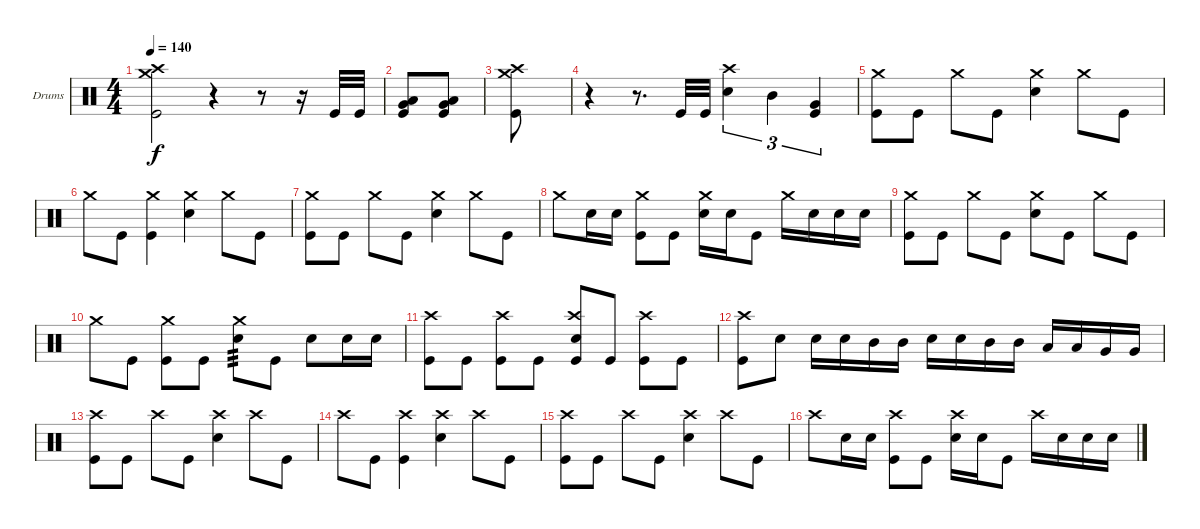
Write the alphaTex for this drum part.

\bracketExtendMode groupsimilarinstruments
\firstSystemTrackNameOrientation horizontal
\otherSystemsTrackNameOrientation horizontal
\track ("Drumkit" "Drums") {instrument percussion}
\staff {score}
\articulation defaults
\ts (4 4)
\tempo 140
\clef neutral
\ks c
("Kick (hit)" "Crash medium (hit)" "Crash high (hit)").2{dy f} r.4 r.8 r.16 "Kick (hit)".32 "Kick (hit)".32 |
("Very Low Tom (hit)" "Low Tom (hit)" "Kick (hit)").8 ("Very Low Tom (hit)" "Low Tom (hit)" "Kick (hit)").8 |
("Kick (hit)" "Crash medium (hit)" "Crash high (hit)").8 |
r.4 r.8{d} "Kick (hit)".32 "Kick (hit)".32 ("Snare (hit) 2" "Crash high (hit)").4{tu (3 2)} "Mid Tom (hit)".4{tu (3 2)} ("Very Low Tom (hit)" "Kick (hit)").4{tu (3 2)} |
("Crash medium (hit)" "Kick (hit)").8 "Kick (hit)".8 "Crash medium (hit)".8 "Kick (hit)".8 ("Snare (hit) 2" "Crash medium (hit)").4 "Crash medium (hit)".8 "Kick (hit)".8 |
"Crash medium (hit)".8 "Kick (hit)".8 ("Kick (hit)" "Crash medium (hit)").4 ("Snare (hit) 2" "Crash medium (hit)").4 "Crash medium (hit)".8 "Kick (hit)".8 |
("Crash medium (hit)" "Kick (hit)").8 "Kick (hit)".8 "Crash medium (hit)".8 "Kick (hit)".8 ("Snare (hit) 2" "Crash medium (hit)").4 "Crash medium (hit)".8 "Kick (hit)".8 |
"Crash medium (hit)".8 "Snare (hit) 2".16 "Snare (hit) 2".16 ("Kick (hit)" "Crash medium (hit)").8 "Kick (hit)".8 ("Snare (hit) 2" "Crash medium (hit)").16 "Snare (hit) 2".16 "Kick (hit)".8 "Crash medium (hit)".16 "Snare (hit) 2".16 "Snare (hit) 2".16 "Snare (hit) 2".16 |
("Crash medium (hit)" "Kick (hit)").8 "Kick (hit)".8 "Crash medium (hit)".8 "Kick (hit)".8 ("Snare (hit) 2" "Crash medium (hit)").8 "Kick (hit)".8 "Crash medium (hit)".8 "Kick (hit)".8 |
"Crash medium (hit)".8 "Kick (hit)".8 ("Crash medium (hit)" "Kick (hit)").8 "Kick (hit)".8 ("Snare (hit) 2" "Crash medium (hit)").8{tp 3} "Kick (hit)".8 "Snare (hit) 2".8 "Snare (hit) 2".16 "Snare (hit) 2".16 |
("Kick (hit)" "Crash high (hit)").8 "Kick (hit)".8 ("Kick (hit)" "Crash high (hit)").8 "Kick (hit)".8 ("Kick (hit)" "Crash high (hit)" "Snare (hit) 2").8 "Kick (hit)".8 ("Kick (hit)" "Crash high (hit)").8 "Kick (hit)".8 |
("Kick (hit)" "Crash high (hit)").8 "Snare (hit) 2".8 "Snare (hit) 2".16 "Snare (hit) 2".16 "Mid Tom (hit)".16 "Mid Tom (hit)".16 "Snare (hit) 2".16 "Snare (hit) 2".16 "Mid Tom (hit)".16 "Mid Tom (hit)".16 "Low Tom (hit)".16 "Low Tom (hit)".16 "Very Low Tom (hit)".16 "Very Low Tom (hit)".16 |
("Kick (hit)" "Crash high (hit)").8 "Kick (hit)".8 "Crash high (hit)".8 "Kick (hit)".8 ("Snare (hit) 2" "Crash high (hit)").4 "Crash high (hit)".8 "Kick (hit)".8 |
"Crash high (hit)".8 "Kick (hit)".8 ("Kick (hit)" "Crash high (hit)").4 ("Snare (hit) 2" "Crash high (hit)").4 "Crash high (hit)".8 "Kick (hit)".8 |
("Kick (hit)" "Crash high (hit)").8 "Kick (hit)".8 "Crash high (hit)".8 "Kick (hit)".8 ("Snare (hit) 2" "Crash high (hit)").4 "Crash high (hit)".8 "Kick (hit)".8 |
"Crash high (hit)".8 "Snare (hit) 2".16 "Snare (hit) 2".16 ("Kick (hit)" "Crash high (hit)").8 "Kick (hit)".8 ("Snare (hit) 2" "Crash high (hit)").16 "Snare (hit) 2".16 "Kick (hit)".8 "Crash high (hit)".16 "Snare (hit) 2".16 "Snare (hit) 2".16 "Snare (hit) 2".16
